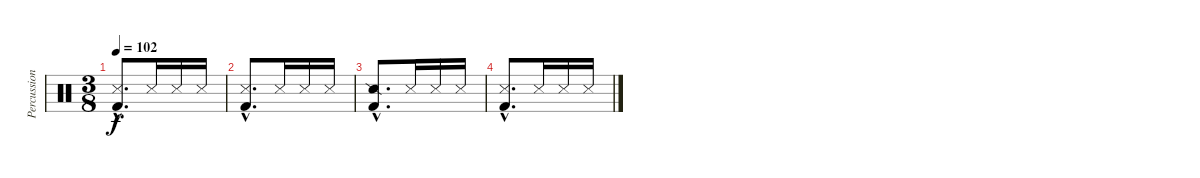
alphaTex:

\track ("Percussions" "Percussion") {instrument percussion}
\staff {score}
\articulation defaults
\ts (3 8)
\tempo 102
\clef neutral
\ks c
("Snare (side stick) 3"{hac} "Kick (hit) 2"{hac}).8{d dy f} "Snare (side stick) 3".16 "Snare (side stick) 3".16 "Snare (side stick) 3".16 |
("Snare (side stick) 3"{hac} "Kick (hit) 2"{hac}).8{d} "Snare (side stick) 3".16 "Snare (side stick) 3".16 "Snare (side stick) 3".16 |
("Snare (side stick) 2"{hac} "Kick (hit) 2"{hac}).8{d} "Snare (side stick) 3".16 "Snare (side stick) 3".16 "Snare (side stick) 3".16 |
("Snare (side stick) 3"{hac} "Kick (hit) 2"{hac}).8{d} "Snare (side stick) 3".16 "Snare (side stick) 3".16 "Snare (side stick) 3".16
